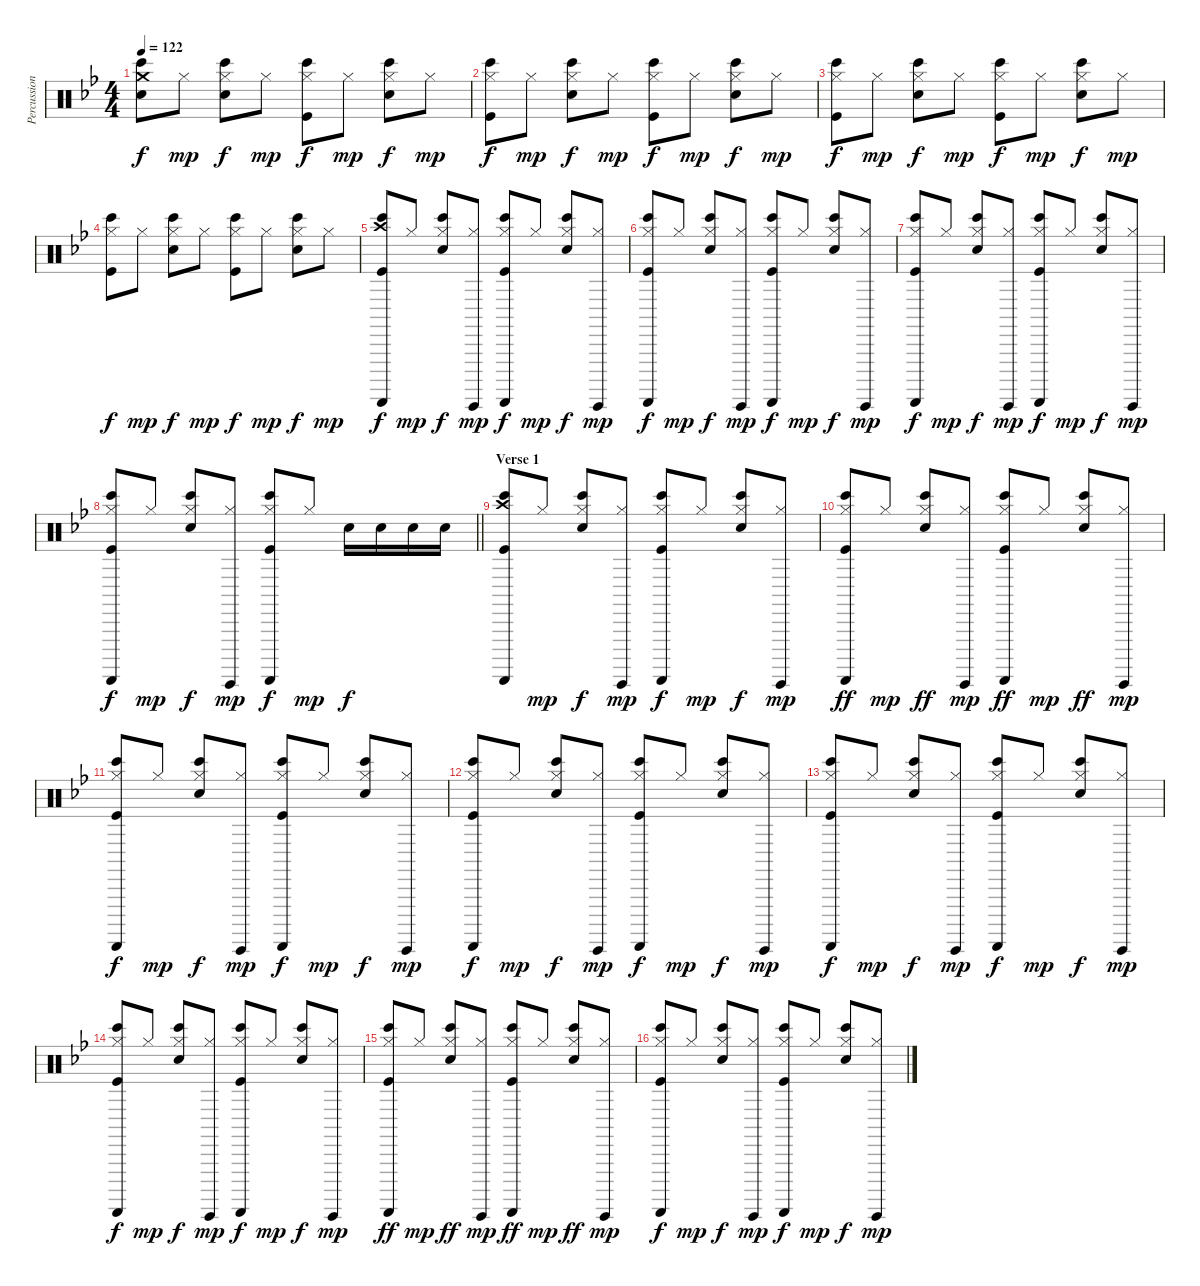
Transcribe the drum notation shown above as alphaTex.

\track ("Percussions" "Percussion") {instrument percussion}
\staff {score}
\articulation defaults
\ts (4 4)
\tempo 122
\clef neutral
\ks bb
("Crash medium (hit)" "Bongo High (hit)" "Snare (hit) 2").8{dy f} "Hi-Hat (closed)".8{dy mp} ("Hi-Hat (closed)" "Bongo High (hit)" "Snare (hit) 2").8{dy f} "Hi-Hat (closed)".8{dy mp} ("Hi-Hat (closed)" "Bongo High (hit)" "Kick (hit)").8{dy f} "Hi-Hat (closed)".8{dy mp} ("Hi-Hat (closed)" "Bongo High (hit)" "Snare (hit) 2").8{dy f} "Hi-Hat (closed)".8{dy mp} |
("Hi-Hat (closed)" "Bongo High (hit)" "Kick (hit)").8{dy f} "Hi-Hat (closed)".8{dy mp} ("Hi-Hat (closed)" "Bongo High (hit)" "Snare (hit) 2").8{dy f} "Hi-Hat (closed)".8{dy mp} ("Hi-Hat (closed)" "Bongo High (hit)" "Kick (hit)").8{dy f} "Hi-Hat (closed)".8{dy mp} ("Hi-Hat (closed)" "Bongo High (hit)" "Snare (hit) 2").8{dy f} "Hi-Hat (closed)".8{dy mp} |
("Hi-Hat (closed)" "Bongo High (hit)" "Kick (hit)").8{dy f} "Hi-Hat (closed)".8{dy mp} ("Hi-Hat (closed)" "Bongo High (hit)" "Snare (hit) 2").8{dy f} "Hi-Hat (closed)".8{dy mp} ("Hi-Hat (closed)" "Bongo High (hit)" "Kick (hit)").8{dy f} "Hi-Hat (closed)".8{dy mp} ("Hi-Hat (closed)" "Bongo High (hit)" "Snare (hit) 2").8{dy f} "Hi-Hat (closed)".8{dy mp} |
("Hi-Hat (closed)" "Bongo High (hit)" "Kick (hit)").8{dy f} "Hi-Hat (closed)".8{dy mp} ("Hi-Hat (closed)" "Bongo High (hit)" "Snare (hit) 2").8{dy f} "Hi-Hat (closed)".8{dy mp} ("Hi-Hat (closed)" "Bongo High (hit)" "Kick (hit)").8{dy f} "Hi-Hat (closed)".8{dy mp} ("Hi-Hat (closed)" "Bongo High (hit)" "Snare (hit) 2").8{dy f} "Hi-Hat (closed)".8{dy mp} |
("Crash high (hit)" "Bongo High (hit)" "Guiro (scrap-return)" "Kick (hit)").8{dy f} "Hi-Hat (closed)".8{dy mp} ("Hi-Hat (closed)" "Bongo High (hit)" "Snare (hit) 2").8{dy f} ("Hi-Hat (closed)" "Guiro (hit)").8{dy mp} ("Hi-Hat (closed)" "Bongo High (hit)" "Guiro (scrap-return)" "Kick (hit)").8{dy f} "Hi-Hat (closed)".8{dy mp} ("Hi-Hat (closed)" "Bongo High (hit)" "Snare (hit) 2").8{dy f} ("Hi-Hat (closed)" "Guiro (hit)").8{dy mp} |
("Hi-Hat (closed)" "Bongo High (hit)" "Guiro (scrap-return)" "Kick (hit)").8{dy f} "Hi-Hat (closed)".8{dy mp} ("Hi-Hat (closed)" "Bongo High (hit)" "Snare (hit) 2").8{dy f} ("Hi-Hat (closed)" "Guiro (hit)").8{dy mp} ("Hi-Hat (closed)" "Bongo High (hit)" "Guiro (scrap-return)" "Kick (hit)").8{dy f} "Hi-Hat (closed)".8{dy mp} ("Hi-Hat (closed)" "Bongo High (hit)" "Snare (hit) 2").8{dy f} ("Hi-Hat (closed)" "Guiro (hit)").8{dy mp} |
("Hi-Hat (closed)" "Bongo High (hit)" "Guiro (scrap-return)" "Kick (hit)").8{dy f} "Hi-Hat (closed)".8{dy mp} ("Hi-Hat (closed)" "Bongo High (hit)" "Snare (hit) 2").8{dy f} ("Hi-Hat (closed)" "Guiro (hit)").8{dy mp} ("Hi-Hat (closed)" "Bongo High (hit)" "Guiro (scrap-return)" "Kick (hit)").8{dy f} "Hi-Hat (closed)".8{dy mp} ("Hi-Hat (closed)" "Bongo High (hit)" "Snare (hit) 2").8{dy f} ("Hi-Hat (closed)" "Guiro (hit)").8{dy mp} |
\barLineRight lightlight
("Hi-Hat (closed)" "Bongo High (hit)" "Guiro (scrap-return)" "Kick (hit)").8{dy f} "Hi-Hat (closed)".8{dy mp} ("Hi-Hat (closed)" "Bongo High (hit)" "Snare (hit) 2").8{dy f} ("Hi-Hat (closed)" "Guiro (hit)").8{dy mp} ("Hi-Hat (closed)" "Bongo High (hit)" "Guiro (scrap-return)" "Kick (hit)").8{dy f} "Hi-Hat (closed)".8{dy mp} "Snare (hit) 2".16{dy f} "Snare (hit) 2".16 "Snare (hit) 2".16 "Snare (hit) 2".16 |
\section ("" "Verse 1")
("Crash high (hit)" "Bongo High (hit)" "Guiro (scrap-return)" "Kick (hit)").8 "Hi-Hat (closed)".8{dy mp} ("Hi-Hat (closed)" "Bongo High (hit)" "Snare (hit) 2").8{dy f} ("Hi-Hat (closed)" "Guiro (hit)").8{dy mp} ("Hi-Hat (closed)" "Bongo High (hit)" "Guiro (scrap-return)" "Kick (hit)").8{dy f} "Hi-Hat (closed)".8{dy mp} ("Hi-Hat (closed)" "Bongo High (hit)" "Snare (hit) 2").8{dy f} ("Hi-Hat (closed)" "Guiro (hit)").8{dy mp} |
("Hi-Hat (closed)" "Bongo High (hit)" "Guiro (scrap-return)" "Kick (hit)").8{dy ff} "Hi-Hat (closed)".8{dy mp} ("Hi-Hat (closed)" "Bongo High (hit)" "Snare (hit) 2").8{dy ff} ("Hi-Hat (closed)" "Guiro (hit)").8{dy mp} ("Hi-Hat (closed)" "Bongo High (hit)" "Guiro (scrap-return)" "Kick (hit)").8{dy ff} "Hi-Hat (closed)".8{dy mp} ("Hi-Hat (closed)" "Bongo High (hit)" "Snare (hit) 2").8{dy ff} ("Hi-Hat (closed)" "Guiro (hit)").8{dy mp} |
("Hi-Hat (closed)" "Bongo High (hit)" "Guiro (scrap-return)" "Kick (hit)").8{dy f} "Hi-Hat (closed)".8{dy mp} ("Hi-Hat (closed)" "Bongo High (hit)" "Snare (hit) 2").8{dy f} ("Hi-Hat (closed)" "Guiro (hit)").8{dy mp} ("Hi-Hat (closed)" "Bongo High (hit)" "Guiro (scrap-return)" "Kick (hit)").8{dy f} "Hi-Hat (closed)".8{dy mp} ("Hi-Hat (closed)" "Bongo High (hit)" "Snare (hit) 2").8{dy f} ("Hi-Hat (closed)" "Guiro (hit)").8{dy mp} |
("Hi-Hat (closed)" "Bongo High (hit)" "Guiro (scrap-return)" "Kick (hit)").8{dy f} "Hi-Hat (closed)".8{dy mp} ("Hi-Hat (closed)" "Bongo High (hit)" "Snare (hit) 2").8{dy f} ("Hi-Hat (closed)" "Guiro (hit)").8{dy mp} ("Hi-Hat (closed)" "Bongo High (hit)" "Guiro (scrap-return)" "Kick (hit)").8{dy f} "Hi-Hat (closed)".8{dy mp} ("Hi-Hat (closed)" "Bongo High (hit)" "Snare (hit) 2").8{dy f} ("Hi-Hat (closed)" "Guiro (hit)").8{dy mp} |
("Hi-Hat (closed)" "Bongo High (hit)" "Guiro (scrap-return)" "Kick (hit)").8{dy f} "Hi-Hat (closed)".8{dy mp} ("Hi-Hat (closed)" "Bongo High (hit)" "Snare (hit) 2").8{dy f} ("Hi-Hat (closed)" "Guiro (hit)").8{dy mp} ("Hi-Hat (closed)" "Bongo High (hit)" "Guiro (scrap-return)" "Kick (hit)").8{dy f} "Hi-Hat (closed)".8{dy mp} ("Hi-Hat (closed)" "Bongo High (hit)" "Snare (hit) 2").8{dy f} ("Hi-Hat (closed)" "Guiro (hit)").8{dy mp} |
("Hi-Hat (closed)" "Bongo High (hit)" "Guiro (scrap-return)" "Kick (hit)").8{dy f} "Hi-Hat (closed)".8{dy mp} ("Hi-Hat (closed)" "Bongo High (hit)" "Snare (hit) 2").8{dy f} ("Hi-Hat (closed)" "Guiro (hit)").8{dy mp} ("Hi-Hat (closed)" "Bongo High (hit)" "Guiro (scrap-return)" "Kick (hit)").8{dy f} "Hi-Hat (closed)".8{dy mp} ("Hi-Hat (closed)" "Bongo High (hit)" "Snare (hit) 2").8{dy f} ("Hi-Hat (closed)" "Guiro (hit)").8{dy mp} |
("Hi-Hat (closed)" "Bongo High (hit)" "Guiro (scrap-return)" "Kick (hit)").8{dy ff} "Hi-Hat (closed)".8{dy mp} ("Hi-Hat (closed)" "Bongo High (hit)" "Snare (hit) 2").8{dy ff} ("Hi-Hat (closed)" "Guiro (hit)").8{dy mp} ("Hi-Hat (closed)" "Bongo High (hit)" "Guiro (scrap-return)" "Kick (hit)").8{dy ff} "Hi-Hat (closed)".8{dy mp} ("Hi-Hat (closed)" "Bongo High (hit)" "Snare (hit) 2").8{dy ff} ("Hi-Hat (closed)" "Guiro (hit)").8{dy mp} |
("Hi-Hat (closed)" "Bongo High (hit)" "Guiro (scrap-return)" "Kick (hit)").8{dy f} "Hi-Hat (closed)".8{dy mp} ("Hi-Hat (closed)" "Bongo High (hit)" "Snare (hit) 2").8{dy f} ("Hi-Hat (closed)" "Guiro (hit)").8{dy mp} ("Hi-Hat (closed)" "Bongo High (hit)" "Guiro (scrap-return)" "Kick (hit)").8{dy f} "Hi-Hat (closed)".8{dy mp} ("Hi-Hat (closed)" "Bongo High (hit)" "Snare (hit) 2").8{dy f} ("Hi-Hat (closed)" "Guiro (hit)").8{dy mp}
